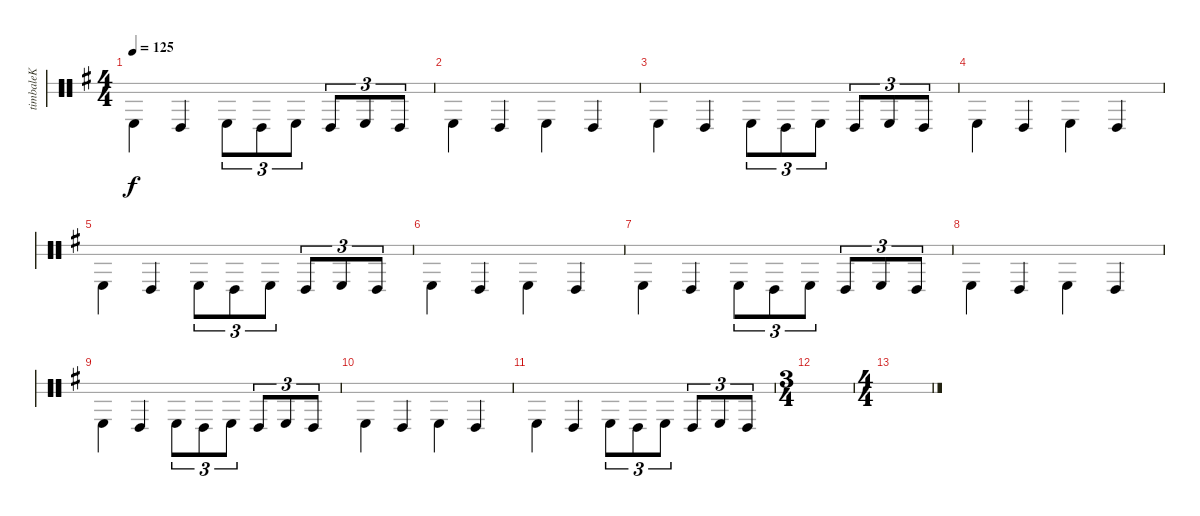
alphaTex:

\defaultSystemsLayout 4
\bracketExtendMode groupsimilarinstruments
\otherSystemsTrackNameOrientation horizontal
\track ("Timbale" "timbaleK") {instrument percussion}
\staff {score 2}
\articulation defaults
\ts (4 4)
\tempo 125
\clef neutral
\scale
0.333333
\ks g "Timbale high (hit)"{acc forcenatural}.4{dy f beam Down} "Timbale low (hit)"{acc forcenatural}.4{beam Up} "Timbale high (hit)"{acc forcenatural}.8{tu (3 2) beam Down} "Timbale low (hit)"{acc forcenatural}.8{tu (3 2) beam Down} "Timbale high (hit)"{acc forcenatural}.8{tu (3 2) beam Down} "Timbale low (hit)"{acc forcenatural}.8{tu (3 2) beam Up} "Timbale high (hit)"{acc forcenatural}.8{tu (3 2) beam Up} "Timbale low (hit)"{acc forcenatural}.8{tu (3 2) beam Up}
|
\scale
0.333333 "Timbale high (hit)"{acc forcenatural}.4{beam Down} "Timbale low (hit)"{acc forcenatural}.4{beam Up} "Timbale high (hit)"{acc forcenatural}.4{beam Down} "Timbale low (hit)"{acc forcenatural}.4{beam Up} |
\scale
0.333333 "Timbale high (hit)"{acc forcenatural}.4{beam Down} "Timbale low (hit)"{acc forcenatural}.4{beam Up} "Timbale high (hit)"{acc forcenatural}.8{tu (3 2) beam Down} "Timbale low (hit)"{acc forcenatural}.8{tu (3 2) beam Down} "Timbale high (hit)"{acc forcenatural}.8{tu (3 2) beam Down} "Timbale low (hit)"{acc forcenatural}.8{tu (3 2) beam Up} "Timbale high (hit)"{acc forcenatural}.8{tu (3 2) beam Up} "Timbale low (hit)"{acc forcenatural}.8{tu (3 2) beam Up} |
\scale
0.333333 "Timbale high (hit)"{acc forcenatural}.4{beam Down} "Timbale low (hit)"{acc forcenatural}.4{beam Up} "Timbale high (hit)"{acc forcenatural}.4{beam Down} "Timbale low (hit)"{acc forcenatural}.4{beam Up} |
\scale
0.333333 "Timbale high (hit)"{acc forcenatural}.4{beam Down} "Timbale low (hit)"{acc forcenatural}.4{beam Up} "Timbale high (hit)"{acc forcenatural}.8{tu (3 2) beam Down} "Timbale low (hit)"{acc forcenatural}.8{tu (3 2) beam Down} "Timbale high (hit)"{acc forcenatural}.8{tu (3 2) beam Down} "Timbale low (hit)"{acc forcenatural}.8{tu (3 2) beam Up} "Timbale high (hit)"{acc forcenatural}.8{tu (3 2) beam Up} "Timbale low (hit)"{acc forcenatural}.8{tu (3 2) beam Up} |
\scale
0.333333 "Timbale high (hit)"{acc forcenatural}.4{beam Down} "Timbale low (hit)"{acc forcenatural}.4{beam Up} "Timbale high (hit)"{acc forcenatural}.4{beam Down} "Timbale low (hit)"{acc forcenatural}.4{beam Up} |
\scale
0.333333 "Timbale high (hit)"{acc forcenatural}.4{beam Down} "Timbale low (hit)"{acc forcenatural}.4{beam Up} "Timbale high (hit)"{acc forcenatural}.8{tu (3 2) beam Down} "Timbale low (hit)"{acc forcenatural}.8{tu (3 2) beam Down} "Timbale high (hit)"{acc forcenatural}.8{tu (3 2) beam Down} "Timbale low (hit)"{acc forcenatural}.8{tu (3 2) beam Up} "Timbale high (hit)"{acc forcenatural}.8{tu (3 2) beam Up} "Timbale low (hit)"{acc forcenatural}.8{tu (3 2) beam Up} |
\scale
0.333333 "Timbale high (hit)"{acc forcenatural}.4{beam Down} "Timbale low (hit)"{acc forcenatural}.4{beam Up} "Timbale high (hit)"{acc forcenatural}.4{beam Down} "Timbale low (hit)"{acc forcenatural}.4{beam Up} |
\scale
0.333333 "Timbale high (hit)"{acc forcenatural}.4{beam Down} "Timbale low (hit)"{acc forcenatural}.4{beam Up} "Timbale high (hit)"{acc forcenatural}.8{tu (3 2) beam Down} "Timbale low (hit)"{acc forcenatural}.8{tu (3 2) beam Down} "Timbale high (hit)"{acc forcenatural}.8{tu (3 2) beam Down} "Timbale low (hit)"{acc forcenatural}.8{tu (3 2) beam Up} "Timbale high (hit)"{acc forcenatural}.8{tu (3 2) beam Up} "Timbale low (hit)"{acc forcenatural}.8{tu (3 2) beam Up} |
\scale
0.262911 "Timbale high (hit)"{acc forcenatural}.4{beam Down} "Timbale low (hit)"{acc forcenatural}.4{beam Up} "Timbale high (hit)"{acc forcenatural}.4{beam Down} "Timbale low (hit)"{acc forcenatural}.4{beam Up} |
\scale
0.262911 "Timbale high (hit)"{acc forcenatural}.4{beam Down} "Timbale low (hit)"{acc forcenatural}.4{beam Up} "Timbale high (hit)"{acc forcenatural}.8{tu (3 2) beam Down} "Timbale low (hit)"{acc forcenatural}.8{tu (3 2) beam Down} "Timbale high (hit)"{acc forcenatural}.8{tu (3 2) beam Down} "Timbale low (hit)"{acc forcenatural}.8{tu (3 2) beam Up} "Timbale high (hit)"{acc forcenatural}.8{tu (3 2) beam Up} "Timbale low (hit)"{acc forcenatural}.8{tu (3 2) beam Up} |
\ts (3 4)
\scale
0.474178 |
\ts (4 4)
\scale
0.474178 |
\scale
0.262911 |
\scale
0.262911 |
\scale
0.333333
